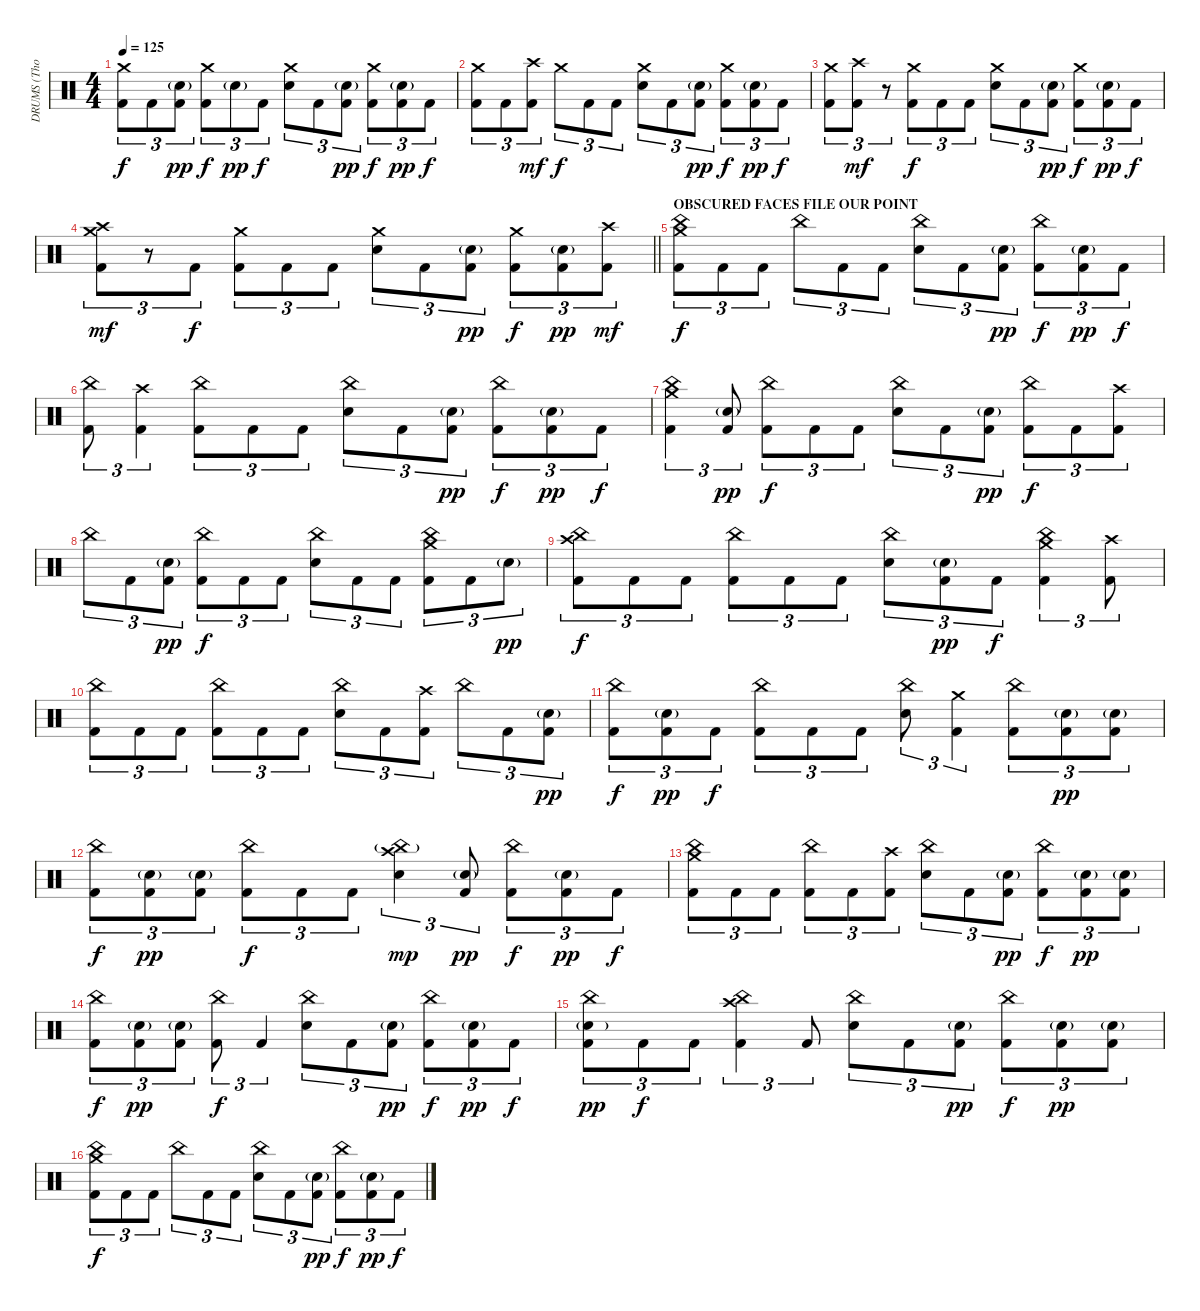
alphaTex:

\track ("DRUMS (Thomas Haake)" "DRUMS (Tho") {instrument percussion}
\staff {score}
\articulation defaults
\ts (4 4)
\tempo 125
\clef neutral
\ks c
("Crash medium (hit)" "Kick (hit) 2").8{tu (3 2) dy f} "Kick (hit) 2".8{tu (3 2)} ("Electric Snare (hit)"{g} "Kick (hit) 2").8{tu (3 2) dy pp} ("Crash medium (hit)" "Kick (hit) 2").8{tu (3 2) dy f} "Electric Snare (hit)"{g}.8{tu (3 2) dy pp} "Kick (hit) 2".8{tu (3 2) dy f} ("Crash medium (hit)" "Electric Snare (hit)").8{tu (3 2)} "Kick (hit) 2".8{tu (3 2)} ("Electric Snare (hit)"{g} "Kick (hit) 2").8{tu (3 2) dy pp} ("Crash medium (hit)" "Kick (hit) 2").8{tu (3 2) dy f} ("Electric Snare (hit)"{g} "Kick (hit) 2").8{tu (3 2) dy pp} "Kick (hit) 2".8{tu (3 2) dy f} |
("Crash medium (hit)" "Kick (hit) 2").8{tu (3 2)} "Kick (hit) 2".8{tu (3 2)} ("Crash high (hit)" "Kick (hit) 2").8{tu (3 2) dy mf} "Crash medium (hit)".8{tu (3 2) dy f} "Kick (hit) 2".8{tu (3 2)} "Kick (hit) 2".8{tu (3 2)} ("Crash medium (hit)" "Electric Snare (hit)").8{tu (3 2)} "Kick (hit) 2".8{tu (3 2)} ("Electric Snare (hit)"{g} "Kick (hit) 2").8{tu (3 2) dy pp} ("Crash medium (hit)" "Kick (hit) 2").8{tu (3 2) dy f} ("Electric Snare (hit)"{g} "Kick (hit) 2").8{tu (3 2) dy pp} "Kick (hit) 2".8{tu (3 2) dy f} |
("Crash medium (hit)" "Kick (hit) 2").8{tu (3 2)} ("Crash high (hit)" "Kick (hit) 2").8{tu (3 2) dy mf} r.8{tu (3 2)} ("Crash medium (hit)" "Kick (hit) 2").8{tu (3 2) dy f} "Kick (hit) 2".8{tu (3 2)} "Kick (hit) 2".8{tu (3 2)} ("Crash medium (hit)" "Electric Snare (hit)").8{tu (3 2)} "Kick (hit) 2".8{tu (3 2)} ("Electric Snare (hit)"{g} "Kick (hit) 2").8{tu (3 2) dy pp} ("Crash medium (hit)" "Kick (hit) 2").8{tu (3 2) dy f} ("Electric Snare (hit)"{g} "Kick (hit) 2").8{tu (3 2) dy pp} "Kick (hit) 2".8{tu (3 2) dy f} |
\barLineRight lightlight
("Crash medium (hit)" "Crash high (hit)" "Kick (hit) 2").8{tu (3 2) dy mf} r.8{tu (3 2)} "Kick (hit) 2".8{tu (3 2) dy f} ("Crash medium (hit)" "Kick (hit) 2").8{tu (3 2)} "Kick (hit) 2".8{tu (3 2)} "Kick (hit) 2".8{tu (3 2)} ("Crash medium (hit)" "Electric Snare (hit)").8{tu (3 2)} "Kick (hit) 2".8{tu (3 2)} ("Electric Snare (hit)"{g} "Kick (hit) 2").8{tu (3 2) dy pp} ("Crash medium (hit)" "Kick (hit) 2").8{tu (3 2) dy f} ("Electric Snare (hit)"{g} "Kick (hit) 2").8{tu (3 2) dy pp} ("Crash high (hit)" "Kick (hit) 2").8{tu (3 2) dy mf} |
\section ("" "OBSCURED FACES FILE OUR POINT")
("China (hit)" "Crash medium (hit)" "Kick (hit) 2").8{tu (3 2) dy f} "Kick (hit) 2".8{tu (3 2)} "Kick (hit) 2".8{tu (3 2)} "China (hit)".8{tu (3 2)} "Kick (hit) 2".8{tu (3 2)} "Kick (hit) 2".8{tu (3 2)} ("China (hit)" "Electric Snare (hit)").8{tu (3 2)} "Kick (hit) 2".8{tu (3 2)} ("Electric Snare (hit)"{g} "Kick (hit) 2").8{tu (3 2) dy pp} ("China (hit)" "Kick (hit) 2").8{tu (3 2) dy f} ("Electric Snare (hit)"{g} "Kick (hit) 2").8{tu (3 2) dy pp} "Kick (hit) 2".8{tu (3 2) dy f} |
("China (hit)" "Kick (hit) 2").8{tu (3 2)} ("Crash high (hit)" "Kick (hit) 2").4{tu (3 2)} ("China (hit)" "Kick (hit) 2").8{tu (3 2)} "Kick (hit) 2".8{tu (3 2)} "Kick (hit) 2".8{tu (3 2)} ("China (hit)" "Electric Snare (hit)").8{tu (3 2)} "Kick (hit) 2".8{tu (3 2)} ("Electric Snare (hit)"{g} "Kick (hit) 2").8{tu (3 2) dy pp} ("China (hit)" "Kick (hit) 2").8{tu (3 2) dy f} ("Electric Snare (hit)"{g} "Kick (hit) 2").8{tu (3 2) dy pp} "Kick (hit) 2".8{tu (3 2) dy f} |
("China (hit)" "Crash medium (hit)" "Kick (hit) 2").4{tu (3 2)} ("Electric Snare (hit)"{g} "Kick (hit) 2").8{tu (3 2) dy pp} ("China (hit)" "Kick (hit) 2").8{tu (3 2) dy f} "Kick (hit) 2".8{tu (3 2)} "Kick (hit) 2".8{tu (3 2)} ("China (hit)" "Electric Snare (hit)").8{tu (3 2)} "Kick (hit) 2".8{tu (3 2)} ("Electric Snare (hit)"{g} "Kick (hit) 2").8{tu (3 2) dy pp} ("China (hit)" "Kick (hit) 2").8{tu (3 2) dy f} "Kick (hit) 2".8{tu (3 2)} ("Crash high (hit)" "Kick (hit) 2").8{tu (3 2)} |
"China (hit)".8{tu (3 2)} "Kick (hit) 2".8{tu (3 2)} ("Electric Snare (hit)"{g} "Kick (hit) 2").8{tu (3 2) dy pp} ("China (hit)" "Kick (hit) 2").8{tu (3 2) dy f} "Kick (hit) 2".8{tu (3 2)} "Kick (hit) 2".8{tu (3 2)} ("China (hit)" "Electric Snare (hit)").8{tu (3 2)} "Kick (hit) 2".8{tu (3 2)} "Kick (hit) 2".8{tu (3 2)} ("China (hit)" "Crash medium (hit)" "Kick (hit) 2").8{tu (3 2)} "Kick (hit) 2".8{tu (3 2)} "Electric Snare (hit)"{g}.8{tu (3 2) dy pp} |
("China (hit)" "Crash high (hit)" "Kick (hit) 2").8{tu (3 2) dy f} "Kick (hit) 2".8{tu (3 2)} "Kick (hit) 2".8{tu (3 2)} ("China (hit)" "Kick (hit) 2").8{tu (3 2)} "Kick (hit) 2".8{tu (3 2)} "Kick (hit) 2".8{tu (3 2)} ("China (hit)" "Electric Snare (hit)").8{tu (3 2)} ("Electric Snare (hit)"{g} "Kick (hit) 2").8{tu (3 2) dy pp} "Kick (hit) 2".8{tu (3 2) dy f} ("China (hit)" "Crash medium (hit)" "Kick (hit) 2").4{tu (3 2)} ("Crash high (hit)" "Kick (hit) 2").8{tu (3 2)} |
("China (hit)" "Kick (hit) 2").8{tu (3 2)} "Kick (hit) 2".8{tu (3 2)} "Kick (hit) 2".8{tu (3 2)} ("China (hit)" "Kick (hit) 2").8{tu (3 2)} "Kick (hit) 2".8{tu (3 2)} "Kick (hit) 2".8{tu (3 2)} ("China (hit)" "Electric Snare (hit)").8{tu (3 2)} "Kick (hit) 2".8{tu (3 2)} ("Crash high (hit)" "Kick (hit) 2").8{tu (3 2)} "China (hit)".8{tu (3 2)} "Kick (hit) 2".8{tu (3 2)} ("Electric Snare (hit)"{g} "Kick (hit) 2").8{tu (3 2) dy pp} |
("China (hit)" "Kick (hit) 2").8{tu (3 2) dy f} ("Electric Snare (hit)"{g} "Kick (hit) 2").8{tu (3 2) dy pp} "Kick (hit) 2".8{tu (3 2) dy f} ("China (hit)" "Kick (hit) 2").8{tu (3 2)} "Kick (hit) 2".8{tu (3 2)} "Kick (hit) 2".8{tu (3 2)} ("China (hit)" "Electric Snare (hit)").8{tu (3 2)} ("Crash medium (hit)" "Kick (hit) 2").4{tu (3 2)} ("China (hit)" "Kick (hit) 2").8{tu (3 2)} ("Electric Snare (hit)"{g} "Kick (hit) 2").8{tu (3 2) dy pp} ("Electric Snare (hit)"{g} "Kick (hit) 2").8{tu (3 2)} |
("China (hit)" "Kick (hit) 2").8{tu (3 2) dy f} ("Electric Snare (hit)"{g} "Kick (hit) 2").8{tu (3 2) dy pp} ("Electric Snare (hit)"{g} "Kick (hit) 2").8{tu (3 2)} ("China (hit)" "Kick (hit) 2").8{tu (3 2) dy f} "Kick (hit) 2".8{tu (3 2)} "Kick (hit) 2".8{tu (3 2)} ("Crash high (hit)" "China (hit)"{g} "Electric Snare (hit)").4{tu (3 2) dy mp} ("Electric Snare (hit)"{g} "Kick (hit) 2").8{tu (3 2) dy pp} ("China (hit)" "Kick (hit) 2").8{tu (3 2) dy f} ("Electric Snare (hit)"{g} "Kick (hit) 2").8{tu (3 2) dy pp} "Kick (hit) 2".8{tu (3 2) dy f} |
("China (hit)" "Crash medium (hit)" "Kick (hit) 2").8{tu (3 2)} "Kick (hit) 2".8{tu (3 2)} "Kick (hit) 2".8{tu (3 2)} ("China (hit)" "Kick (hit) 2").8{tu (3 2)} "Kick (hit) 2".8{tu (3 2)} ("Crash high (hit)" "Kick (hit) 2").8{tu (3 2)} ("China (hit)" "Electric Snare (hit)").8{tu (3 2)} "Kick (hit) 2".8{tu (3 2)} ("Electric Snare (hit)"{g} "Kick (hit) 2").8{tu (3 2) dy pp} ("China (hit)" "Kick (hit) 2").8{tu (3 2) dy f} ("Electric Snare (hit)"{g} "Kick (hit) 2").8{tu (3 2) dy pp} ("Electric Snare (hit)"{g} "Kick (hit) 2").8{tu (3 2)} |
("China (hit)" "Kick (hit) 2").8{tu (3 2) dy f} ("Electric Snare (hit)"{g} "Kick (hit) 2").8{tu (3 2) dy pp} ("Electric Snare (hit)"{g} "Kick (hit) 2").8{tu (3 2)} ("China (hit)" "Kick (hit) 2").8{tu (3 2) dy f} "Kick (hit) 2".4{tu (3 2)} ("China (hit)" "Electric Snare (hit)").8{tu (3 2)} "Kick (hit) 2".8{tu (3 2)} ("Electric Snare (hit)"{g} "Kick (hit) 2").8{tu (3 2) dy pp} ("China (hit)" "Kick (hit) 2").8{tu (3 2) dy f} ("Electric Snare (hit)"{g} "Kick (hit) 2").8{tu (3 2) dy pp} "Kick (hit) 2".8{tu (3 2) dy f} |
("China (hit)" "Electric Snare (hit)"{g} "Kick (hit) 2").8{tu (3 2) dy pp} "Kick (hit) 2".8{tu (3 2) dy f} "Kick (hit) 2".8{tu (3 2)} ("China (hit)" "Crash high (hit)" "Kick (hit) 2").4{tu (3 2)} "Kick (hit) 2".8{tu (3 2)} ("China (hit)" "Electric Snare (hit)").8{tu (3 2)} "Kick (hit) 2".8{tu (3 2)} ("Electric Snare (hit)"{g} "Kick (hit) 2").8{tu (3 2) dy pp} ("China (hit)" "Kick (hit) 2").8{tu (3 2) dy f} ("Electric Snare (hit)"{g} "Kick (hit) 2").8{tu (3 2) dy pp} ("Electric Snare (hit)"{g} "Kick (hit) 2").8{tu (3 2)} |
("China (hit)" "Crash medium (hit)" "Kick (hit) 2").8{tu (3 2) dy f} "Kick (hit) 2".8{tu (3 2)} "Kick (hit) 2".8{tu (3 2)} "China (hit)".8{tu (3 2)} "Kick (hit) 2".8{tu (3 2)} "Kick (hit) 2".8{tu (3 2)} ("China (hit)" "Electric Snare (hit)").8{tu (3 2)} "Kick (hit) 2".8{tu (3 2)} ("Electric Snare (hit)"{g} "Kick (hit) 2").8{tu (3 2) dy pp} ("China (hit)" "Kick (hit) 2").8{tu (3 2) dy f} ("Electric Snare (hit)"{g} "Kick (hit) 2").8{tu (3 2) dy pp} "Kick (hit) 2".8{tu (3 2) dy f}
